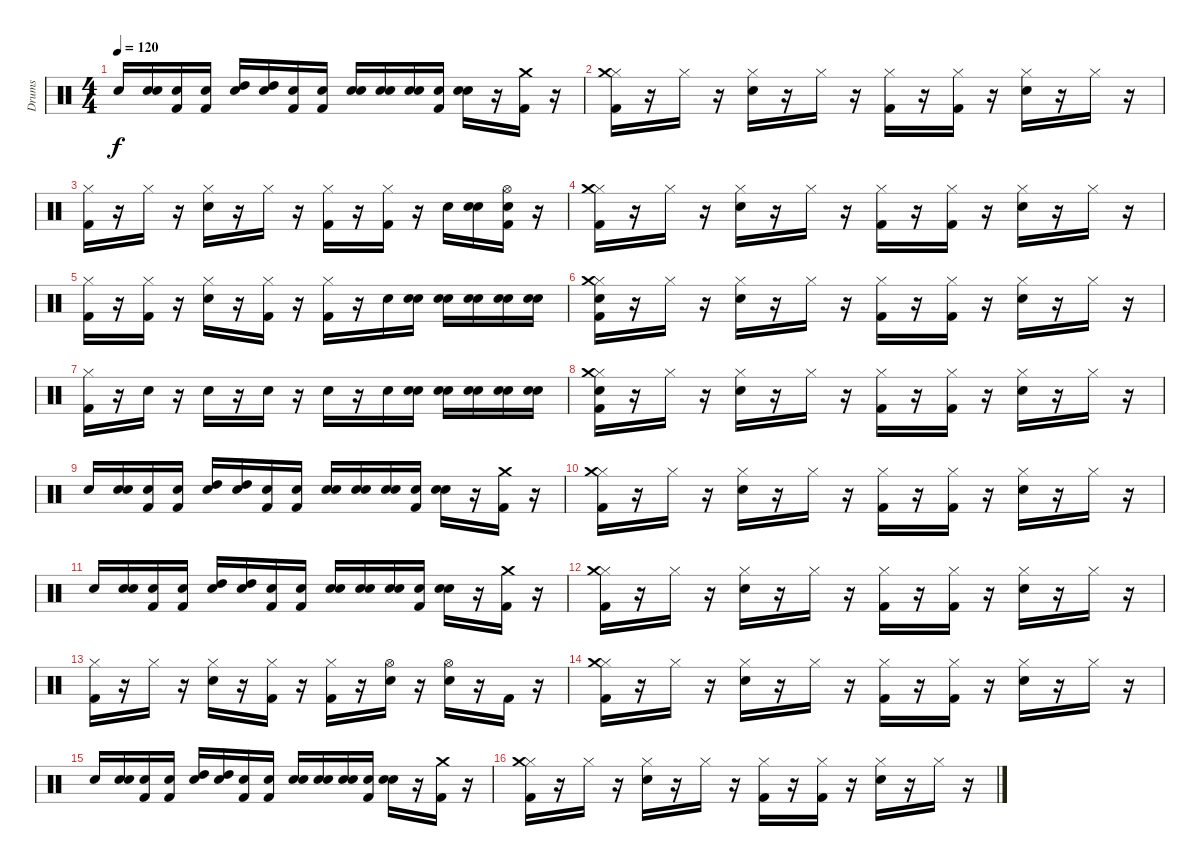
\track ("Drums" "Drums") {instrument percussion}
\staff {score}
\articulation defaults
\ts (4 4)
\tempo 120
\clef neutral
\ks c "Snare (hit) 2".16{dy f}
("Snare (hit)" "Snare (hit) 2").16 ("Snare (hit)" "Kick (hit) 2").16 ("Snare (hit)" "Kick (hit) 2").16 ("Snare (hit)" "High Tom (hit)").16 ("Snare (hit)" "High Tom (hit)").16 ("Snare (hit)" "Kick (hit) 2").16 ("Snare (hit)" "Kick (hit) 2").16 ("Snare (hit)" "Snare (hit) 2").16 ("Snare (hit)" "Snare (hit) 2").16 ("Snare (hit)" "Snare (hit) 2").16 ("Snare (hit)" "Kick (hit) 2").16 ("Snare (hit)" "Snare (hit) 2").16 r.16 ("Kick (hit) 2" "Crash medium (hit)").16 r.16 |
("Kick (hit) 2" "Hi-Hat (closed)" "Crash medium (hit)").16 r.16 "Hi-Hat (closed)".16 r.16 ("Snare (hit) 2" "Hi-Hat (closed)").16 r.16 "Hi-Hat (closed)".16 r.16 ("Kick (hit) 2" "Hi-Hat (closed)").16 r.16 ("Kick (hit) 2" "Hi-Hat (closed)").16 r.16 ("Snare (hit) 2" "Hi-Hat (closed)").16 r.16 "Hi-Hat (closed)".16 r.16 |
("Kick (hit) 2" "Hi-Hat (closed)").16 r.16 "Hi-Hat (closed)".16 r.16 ("Snare (hit) 2" "Hi-Hat (closed)").16 r.16 "Hi-Hat (closed)".16 r.16 ("Kick (hit) 2" "Hi-Hat (closed)").16 r.16 ("Kick (hit) 2" "Hi-Hat (closed)").16 r.16 "Snare (hit) 2".16 ("Snare (hit)" "Snare (hit) 2").16 ("Snare (hit)" "Kick (hit) 2" "Hi-Hat (open)").16 r.16 |
("Kick (hit) 2" "Hi-Hat (closed)" "Crash medium (hit)").16 r.16 "Hi-Hat (closed)".16 r.16 ("Snare (hit) 2" "Hi-Hat (closed)").16 r.16 "Hi-Hat (closed)".16 r.16 ("Kick (hit) 2" "Hi-Hat (closed)").16 r.16 ("Kick (hit) 2" "Hi-Hat (closed)").16 r.16 ("Snare (hit) 2" "Hi-Hat (closed)").16 r.16 "Hi-Hat (closed)".16 r.16 |
("Kick (hit) 2" "Hi-Hat (closed)").16 r.16 ("Kick (hit) 2" "Hi-Hat (closed)").16 r.16 ("Snare (hit) 2" "Hi-Hat (closed)").16 r.16 ("Kick (hit) 2" "Hi-Hat (closed)").16 r.16 ("Kick (hit) 2" "Hi-Hat (closed)").16 r.16 "Snare (hit) 2".16 ("Snare (hit)" "Snare (hit) 2").16 ("Snare (hit)" "Snare (hit) 2").16 ("Snare (hit)" "Snare (hit) 2").16 ("Snare (hit)" "Snare (hit) 2").16 ("Snare (hit)" "Snare (hit) 2").16 |
("Snare (hit)" "Kick (hit) 2" "Hi-Hat (closed)" "Crash medium (hit)").16 r.16 "Hi-Hat (closed)".16 r.16 ("Snare (hit) 2" "Hi-Hat (closed)").16 r.16 "Hi-Hat (closed)".16 r.16 ("Kick (hit) 2" "Hi-Hat (closed)").16 r.16 ("Kick (hit) 2" "Hi-Hat (closed)").16 r.16 ("Snare (hit) 2" "Hi-Hat (closed)").16 r.16 "Hi-Hat (closed)".16 r.16 |
("Kick (hit) 2" "Hi-Hat (closed)").16 r.16 "Snare (hit) 2".16 r.16 "Snare (hit) 2".16 r.16 "Snare (hit) 2".16 r.16 "Snare (hit) 2".16 r.16 "Snare (hit) 2".16 ("Snare (hit)" "Snare (hit) 2").16 ("Snare (hit)" "Snare (hit) 2").16 ("Snare (hit)" "Snare (hit) 2").16 ("Snare (hit)" "Snare (hit) 2").16 ("Snare (hit)" "Snare (hit) 2").16 |
("Snare (hit)" "Kick (hit) 2" "Hi-Hat (closed)" "Crash medium (hit)").16 r.16 "Hi-Hat (closed)".16 r.16 ("Snare (hit) 2" "Hi-Hat (closed)").16 r.16 "Hi-Hat (closed)".16 r.16 ("Kick (hit) 2" "Hi-Hat (closed)").16 r.16 ("Kick (hit) 2" "Hi-Hat (closed)").16 r.16 ("Snare (hit) 2" "Hi-Hat (closed)").16 r.16 "Hi-Hat (closed)".16 r.16 |
"Snare (hit) 2".16 ("Snare (hit)" "Snare (hit) 2").16 ("Snare (hit)" "Kick (hit) 2").16 ("Snare (hit)" "Kick (hit) 2").16 ("Snare (hit)" "High Tom (hit)").16 ("Snare (hit)" "High Tom (hit)").16 ("Snare (hit)" "Kick (hit) 2").16 ("Snare (hit)" "Kick (hit) 2").16 ("Snare (hit)" "Snare (hit) 2").16 ("Snare (hit)" "Snare (hit) 2").16 ("Snare (hit)" "Snare (hit) 2").16 ("Snare (hit)" "Kick (hit) 2").16 ("Snare (hit)" "Snare (hit) 2").16 r.16 ("Kick (hit) 2" "Crash medium (hit)").16 r.16 |
("Kick (hit) 2" "Hi-Hat (closed)" "Crash medium (hit)").16 r.16 "Hi-Hat (closed)".16 r.16 ("Snare (hit) 2" "Hi-Hat (closed)").16 r.16 "Hi-Hat (closed)".16 r.16 ("Kick (hit) 2" "Hi-Hat (closed)").16 r.16 ("Kick (hit) 2" "Hi-Hat (closed)").16 r.16 ("Snare (hit) 2" "Hi-Hat (closed)").16 r.16 "Hi-Hat (closed)".16 r.16 |
"Snare (hit) 2".16 ("Snare (hit)" "Snare (hit) 2").16 ("Snare (hit)" "Kick (hit) 2").16 ("Snare (hit)" "Kick (hit) 2").16 ("Snare (hit)" "High Tom (hit)").16 ("Snare (hit)" "High Tom (hit)").16 ("Snare (hit)" "Kick (hit) 2").16 ("Snare (hit)" "Kick (hit) 2").16 ("Snare (hit)" "Snare (hit) 2").16 ("Snare (hit)" "Snare (hit) 2").16 ("Snare (hit)" "Snare (hit) 2").16 ("Snare (hit)" "Kick (hit) 2").16 ("Snare (hit)" "Snare (hit) 2").16 r.16 ("Kick (hit) 2" "Crash medium (hit)").16 r.16 |
("Kick (hit) 2" "Hi-Hat (closed)" "Crash medium (hit)").16 r.16 "Hi-Hat (closed)".16 r.16 ("Snare (hit) 2" "Hi-Hat (closed)").16 r.16 "Hi-Hat (closed)".16 r.16 ("Kick (hit) 2" "Hi-Hat (closed)").16 r.16 ("Kick (hit) 2" "Hi-Hat (closed)").16 r.16 ("Snare (hit) 2" "Hi-Hat (closed)").16 r.16 "Hi-Hat (closed)".16 r.16 |
("Kick (hit) 2" "Hi-Hat (closed)").16 r.16 "Hi-Hat (closed)".16 r.16 ("Snare (hit) 2" "Hi-Hat (closed)").16 r.16 ("Kick (hit) 2" "Hi-Hat (closed)").16 r.16 ("Kick (hit) 2" "Hi-Hat (closed)").16 r.16 ("Snare (hit) 2" "Hi-Hat (open)").16 r.16 ("Snare (hit) 2" "Hi-Hat (open)").16 r.16 "Kick (hit) 2".16 r.16 |
("Kick (hit) 2" "Hi-Hat (closed)" "Crash medium (hit)").16 r.16 "Hi-Hat (closed)".16 r.16 ("Snare (hit) 2" "Hi-Hat (closed)").16 r.16 "Hi-Hat (closed)".16 r.16 ("Kick (hit) 2" "Hi-Hat (closed)").16 r.16 ("Kick (hit) 2" "Hi-Hat (closed)").16 r.16 ("Snare (hit) 2" "Hi-Hat (closed)").16 r.16 "Hi-Hat (closed)".16 r.16 |
"Snare (hit) 2".16 ("Snare (hit)" "Snare (hit) 2").16 ("Snare (hit)" "Kick (hit) 2").16 ("Snare (hit)" "Kick (hit) 2").16 ("Snare (hit)" "High Tom (hit)").16 ("Snare (hit)" "High Tom (hit)").16 ("Snare (hit)" "Kick (hit) 2").16 ("Snare (hit)" "Kick (hit) 2").16 ("Snare (hit)" "Snare (hit) 2").16 ("Snare (hit)" "Snare (hit) 2").16 ("Snare (hit)" "Snare (hit) 2").16 ("Snare (hit)" "Kick (hit) 2").16 ("Snare (hit)" "Snare (hit) 2").16 r.16 ("Kick (hit) 2" "Crash medium (hit)").16 r.16 |
("Kick (hit) 2" "Hi-Hat (closed)" "Crash medium (hit)").16 r.16 "Hi-Hat (closed)".16 r.16 ("Snare (hit) 2" "Hi-Hat (closed)").16 r.16 "Hi-Hat (closed)".16 r.16 ("Kick (hit) 2" "Hi-Hat (closed)").16 r.16 ("Kick (hit) 2" "Hi-Hat (closed)").16 r.16 ("Snare (hit) 2" "Hi-Hat (closed)").16 r.16 "Hi-Hat (closed)".16 r.16
